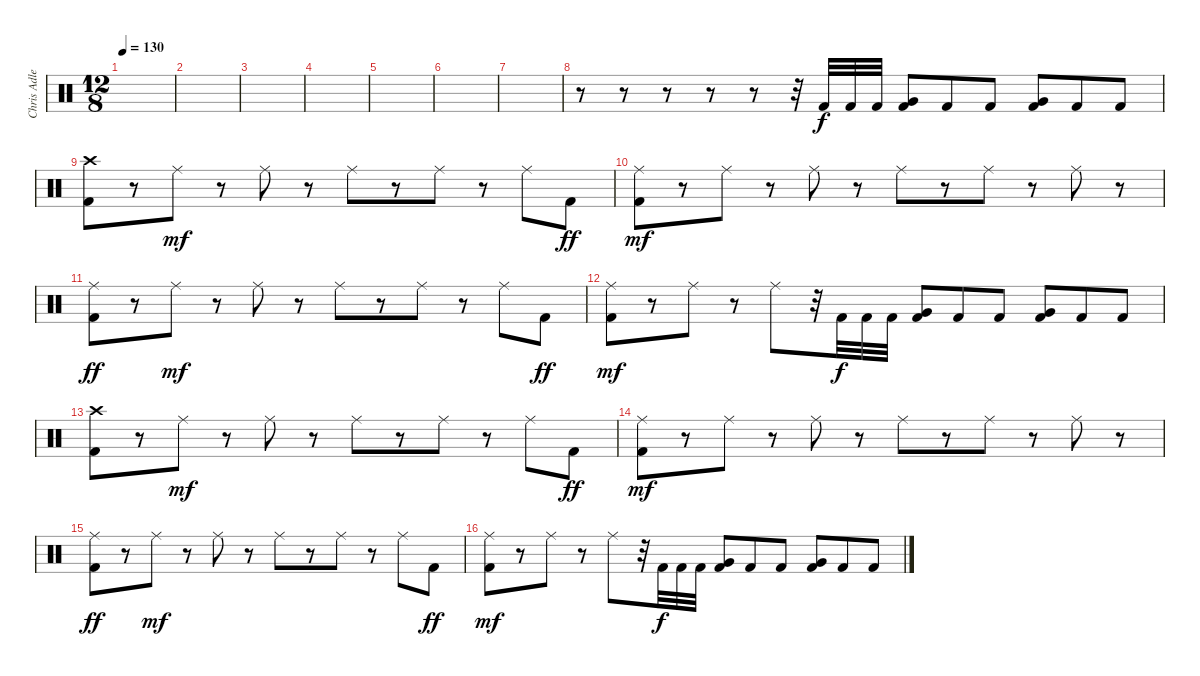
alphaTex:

\track ("Chris Adler" "Chris Adle") {instrument percussion}
\staff {score}
\articulation defaults
\ts (12 8)
\tempo 130
\clef neutral
\ks c
|
|
|
|
|
|
|
r.8 r.8 r.8 r.8 r.8 r.32 "Kick (hit) 2".32 "Kick (hit) 2".32 "Kick (hit) 2".32 ("Very Low Tom (hit)" "Kick (hit) 2").8 "Kick (hit) 2".8 "Kick (hit) 2".8 ("Very Low Tom (hit)" "Kick (hit) 2").8 "Kick (hit) 2".8 "Kick (hit) 2".8 |
("Crash high (hit)" "Kick (hit) 2").8 r.8 "Ride (middle)".8{dy mf} r.8 "Ride (middle)".8 r.8 "Ride (middle)".8 r.8 "Ride (middle)".8 r.8 "Ride (middle)".8 "Kick (hit) 2".8{dy ff} |
("Ride (middle)" "Kick (hit) 2").8{dy mf} r.8 "Ride (middle)".8 r.8 "Ride (middle)".8 r.8 "Ride (middle)".8 r.8 "Ride (middle)".8 r.8 "Ride (middle)".8 r.8 |
("Ride (middle)" "Kick (hit) 2").8{dy ff} r.8 "Ride (middle)".8{dy mf} r.8 "Ride (middle)".8 r.8 "Ride (middle)".8 r.8 "Ride (middle)".8 r.8 "Ride (middle)".8 "Kick (hit) 2".8{dy ff} |
("Ride (middle)" "Kick (hit) 2").8{dy mf} r.8 "Ride (middle)".8 r.8 "Ride (middle)".8 r.32 "Kick (hit) 2".32{dy f} "Kick (hit) 2".32 "Kick (hit) 2".32 ("Very Low Tom (hit)" "Kick (hit) 2").8 "Kick (hit) 2".8 "Kick (hit) 2".8 ("Very Low Tom (hit)" "Kick (hit) 2").8 "Kick (hit) 2".8 "Kick (hit) 2".8 |
("Crash high (hit)" "Kick (hit) 2").8 r.8 "Ride (middle)".8{dy mf} r.8 "Ride (middle)".8 r.8 "Ride (middle)".8 r.8 "Ride (middle)".8 r.8 "Ride (middle)".8 "Kick (hit) 2".8{dy ff} |
("Ride (middle)" "Kick (hit) 2").8{dy mf} r.8 "Ride (middle)".8 r.8 "Ride (middle)".8 r.8 "Ride (middle)".8 r.8 "Ride (middle)".8 r.8 "Ride (middle)".8 r.8 |
("Ride (middle)" "Kick (hit) 2").8{dy ff} r.8 "Ride (middle)".8{dy mf} r.8 "Ride (middle)".8 r.8 "Ride (middle)".8 r.8 "Ride (middle)".8 r.8 "Ride (middle)".8 "Kick (hit) 2".8{dy ff} |
("Ride (middle)" "Kick (hit) 2").8{dy mf} r.8 "Ride (middle)".8 r.8 "Ride (middle)".8 r.32 "Kick (hit) 2".32{dy f} "Kick (hit) 2".32 "Kick (hit) 2".32 ("Very Low Tom (hit)" "Kick (hit) 2").8 "Kick (hit) 2".8 "Kick (hit) 2".8 ("Very Low Tom (hit)" "Kick (hit) 2").8 "Kick (hit) 2".8 "Kick (hit) 2".8
